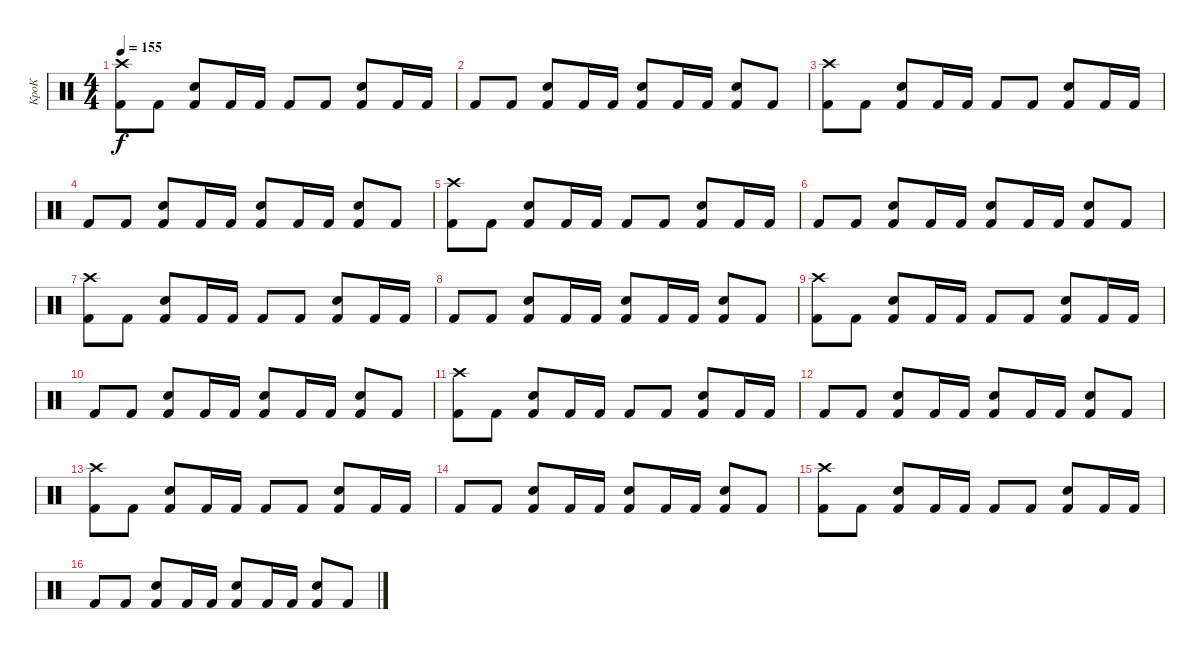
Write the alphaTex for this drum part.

\track ("КроК" "КроК") {instrument percussion}
\staff {score}
\articulation defaults
\ts (4 4)
\tempo 155
\clef neutral
\ks c
("Kick (hit) 2" "Crash high (hit)").8{dy f} "Kick (hit) 2".8 ("Kick (hit) 2" "Electric Snare (hit)").8 "Kick (hit) 2".16 "Kick (hit) 2".16 "Kick (hit) 2".8 "Kick (hit) 2".8 ("Kick (hit) 2" "Electric Snare (hit)").8 "Kick (hit) 2".16 "Kick (hit) 2".16 |
"Kick (hit) 2".8 "Kick (hit) 2".8 ("Kick (hit) 2" "Electric Snare (hit)").8 "Kick (hit) 2".16 "Kick (hit) 2".16 ("Kick (hit) 2" "Electric Snare (hit)").8 "Kick (hit) 2".16 "Kick (hit) 2".16 ("Kick (hit) 2" "Electric Snare (hit)").8 "Kick (hit) 2".8 |
("Kick (hit) 2" "Crash high (hit)").8 "Kick (hit) 2".8 ("Kick (hit) 2" "Electric Snare (hit)").8 "Kick (hit) 2".16 "Kick (hit) 2".16 "Kick (hit) 2".8 "Kick (hit) 2".8 ("Kick (hit) 2" "Electric Snare (hit)").8 "Kick (hit) 2".16 "Kick (hit) 2".16 |
"Kick (hit) 2".8 "Kick (hit) 2".8 ("Kick (hit) 2" "Electric Snare (hit)").8 "Kick (hit) 2".16 "Kick (hit) 2".16 ("Kick (hit) 2" "Electric Snare (hit)").8 "Kick (hit) 2".16 "Kick (hit) 2".16 ("Kick (hit) 2" "Electric Snare (hit)").8 "Kick (hit) 2".8 |
("Kick (hit) 2" "Crash high (hit)").8 "Kick (hit) 2".8 ("Kick (hit) 2" "Electric Snare (hit)").8 "Kick (hit) 2".16 "Kick (hit) 2".16 "Kick (hit) 2".8 "Kick (hit) 2".8 ("Kick (hit) 2" "Electric Snare (hit)").8 "Kick (hit) 2".16 "Kick (hit) 2".16 |
"Kick (hit) 2".8 "Kick (hit) 2".8 ("Kick (hit) 2" "Electric Snare (hit)").8 "Kick (hit) 2".16 "Kick (hit) 2".16 ("Kick (hit) 2" "Electric Snare (hit)").8 "Kick (hit) 2".16 "Kick (hit) 2".16 ("Kick (hit) 2" "Electric Snare (hit)").8 "Kick (hit) 2".8 |
("Kick (hit) 2" "Crash high (hit)").8 "Kick (hit) 2".8 ("Kick (hit) 2" "Electric Snare (hit)").8 "Kick (hit) 2".16 "Kick (hit) 2".16 "Kick (hit) 2".8 "Kick (hit) 2".8 ("Kick (hit) 2" "Electric Snare (hit)").8 "Kick (hit) 2".16 "Kick (hit) 2".16 |
"Kick (hit) 2".8 "Kick (hit) 2".8 ("Kick (hit) 2" "Electric Snare (hit)").8 "Kick (hit) 2".16 "Kick (hit) 2".16 ("Kick (hit) 2" "Electric Snare (hit)").8 "Kick (hit) 2".16 "Kick (hit) 2".16 ("Kick (hit) 2" "Electric Snare (hit)").8 "Kick (hit) 2".8 |
("Kick (hit) 2" "Crash high (hit)").8 "Kick (hit) 2".8 ("Kick (hit) 2" "Electric Snare (hit)").8 "Kick (hit) 2".16 "Kick (hit) 2".16 "Kick (hit) 2".8 "Kick (hit) 2".8 ("Kick (hit) 2" "Electric Snare (hit)").8 "Kick (hit) 2".16 "Kick (hit) 2".16 |
"Kick (hit) 2".8 "Kick (hit) 2".8 ("Kick (hit) 2" "Electric Snare (hit)").8 "Kick (hit) 2".16 "Kick (hit) 2".16 ("Kick (hit) 2" "Electric Snare (hit)").8 "Kick (hit) 2".16 "Kick (hit) 2".16 ("Kick (hit) 2" "Electric Snare (hit)").8 "Kick (hit) 2".8 |
("Kick (hit) 2" "Crash high (hit)").8 "Kick (hit) 2".8 ("Kick (hit) 2" "Electric Snare (hit)").8 "Kick (hit) 2".16 "Kick (hit) 2".16 "Kick (hit) 2".8 "Kick (hit) 2".8 ("Kick (hit) 2" "Electric Snare (hit)").8 "Kick (hit) 2".16 "Kick (hit) 2".16 |
"Kick (hit) 2".8 "Kick (hit) 2".8 ("Kick (hit) 2" "Electric Snare (hit)").8 "Kick (hit) 2".16 "Kick (hit) 2".16 ("Kick (hit) 2" "Electric Snare (hit)").8 "Kick (hit) 2".16 "Kick (hit) 2".16 ("Kick (hit) 2" "Electric Snare (hit)").8 "Kick (hit) 2".8 |
("Kick (hit) 2" "Crash high (hit)").8 "Kick (hit) 2".8 ("Kick (hit) 2" "Electric Snare (hit)").8 "Kick (hit) 2".16 "Kick (hit) 2".16 "Kick (hit) 2".8 "Kick (hit) 2".8 ("Kick (hit) 2" "Electric Snare (hit)").8 "Kick (hit) 2".16 "Kick (hit) 2".16 |
"Kick (hit) 2".8 "Kick (hit) 2".8 ("Kick (hit) 2" "Electric Snare (hit)").8 "Kick (hit) 2".16 "Kick (hit) 2".16 ("Kick (hit) 2" "Electric Snare (hit)").8 "Kick (hit) 2".16 "Kick (hit) 2".16 ("Kick (hit) 2" "Electric Snare (hit)").8 "Kick (hit) 2".8 |
("Kick (hit) 2" "Crash high (hit)").8 "Kick (hit) 2".8 ("Kick (hit) 2" "Electric Snare (hit)").8 "Kick (hit) 2".16 "Kick (hit) 2".16 "Kick (hit) 2".8 "Kick (hit) 2".8 ("Kick (hit) 2" "Electric Snare (hit)").8 "Kick (hit) 2".16 "Kick (hit) 2".16 |
"Kick (hit) 2".8 "Kick (hit) 2".8 ("Kick (hit) 2" "Electric Snare (hit)").8 "Kick (hit) 2".16 "Kick (hit) 2".16 ("Kick (hit) 2" "Electric Snare (hit)").8 "Kick (hit) 2".16 "Kick (hit) 2".16 ("Kick (hit) 2" "Electric Snare (hit)").8 "Kick (hit) 2".8
